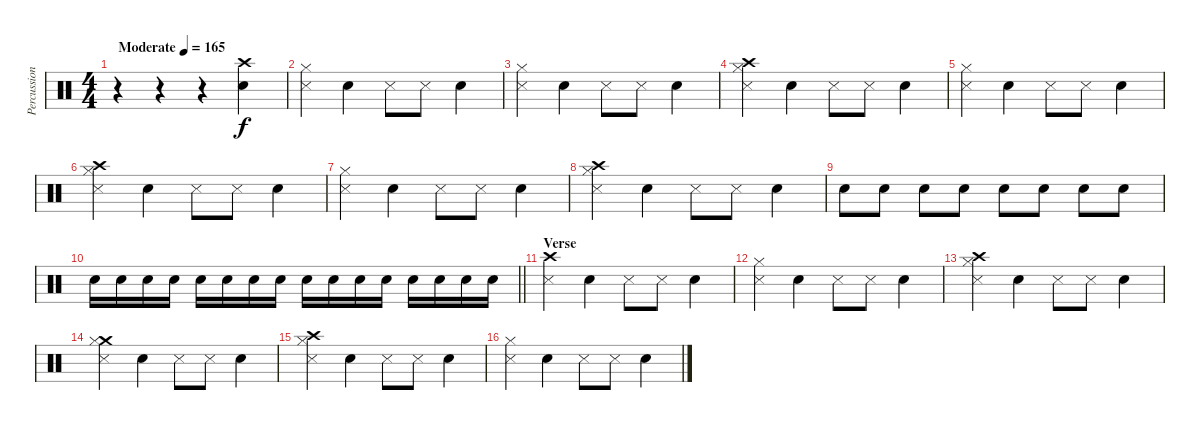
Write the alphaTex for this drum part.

\track ("Percussion" "Percussion") {instrument percussion}
\staff {score}
\articulation defaults
\ts (4 4)
\tempo (165 "Moderate")
\clef neutral
\ks c
r.4{dy f} r.4 r.4 ("Crash high (hit)" "Electric Snare (hit)").4 |
("Metronome (hit)" "Hi-Hat (closed)").4 "Electric Snare (hit)".4 "Metronome (hit)".8 "Metronome (hit)".8 "Electric Snare (hit)".4 |
("Metronome (hit)" "Hi-Hat (closed)").4 "Electric Snare (hit)".4 "Metronome (hit)".8 "Metronome (hit)".8 "Electric Snare (hit)".4 |
("Metronome (hit)" "Crash high (hit)" "Hi-Hat (closed)").4 "Electric Snare (hit)".4 "Metronome (hit)".8 "Metronome (hit)".8 "Electric Snare (hit)".4 |
("Metronome (hit)" "Hi-Hat (closed)").4 "Electric Snare (hit)".4 "Metronome (hit)".8 "Metronome (hit)".8 "Electric Snare (hit)".4 |
("Metronome (hit)" "Crash high (hit)" "Hi-Hat (closed)").4 "Electric Snare (hit)".4 "Metronome (hit)".8 "Metronome (hit)".8 "Electric Snare (hit)".4 |
("Metronome (hit)" "Hi-Hat (closed)").4 "Electric Snare (hit)".4 "Metronome (hit)".8 "Metronome (hit)".8 "Electric Snare (hit)".4 |
("Metronome (hit)" "Crash high (hit)" "Hi-Hat (closed)").4 "Electric Snare (hit)".4 "Metronome (hit)".8 "Metronome (hit)".8 "Electric Snare (hit)".4 |
"Electric Snare (hit)".8 "Electric Snare (hit)".8 "Electric Snare (hit)".8 "Electric Snare (hit)".8 "Electric Snare (hit)".8 "Electric Snare (hit)".8 "Electric Snare (hit)".8 "Electric Snare (hit)".8 |
\barLineRight lightlight "Electric Snare (hit)".16 "Electric Snare (hit)".16 "Electric Snare (hit)".16 "Electric Snare (hit)".16 "Electric Snare (hit)".16 "Electric Snare (hit)".16 "Electric Snare (hit)".16 "Electric Snare (hit)".16 "Electric Snare (hit)".16 "Electric Snare (hit)".16 "Electric Snare (hit)".16 "Electric Snare (hit)".16 "Electric Snare (hit)".16 "Electric Snare (hit)".16 "Electric Snare (hit)".16 "Electric Snare (hit)".16
|
\section ("" "Verse")
("Metronome (hit)" "Crash high (hit)").4 "Electric Snare (hit)".4 "Metronome (hit)".8 "Metronome (hit)".8 "Electric Snare (hit)".4 |
("Metronome (hit)" "Hi-Hat (closed)").4 "Electric Snare (hit)".4 "Metronome (hit)".8 "Metronome (hit)".8 "Electric Snare (hit)".4 |
("Metronome (hit)" "Crash high (hit)" "Hi-Hat (closed)").4 "Electric Snare (hit)".4 "Metronome (hit)".8 "Metronome (hit)".8 "Electric Snare (hit)".4 |
("Metronome (hit)" "Crash medium (hit)" "Hi-Hat (closed)").4 "Electric Snare (hit)".4 "Metronome (hit)".8 "Metronome (hit)".8 "Electric Snare (hit)".4 |
("Metronome (hit)" "Crash high (hit)" "Hi-Hat (closed)").4 "Electric Snare (hit)".4 "Metronome (hit)".8 "Metronome (hit)".8 "Electric Snare (hit)".4 |
("Metronome (hit)" "Hi-Hat (closed)").4 "Electric Snare (hit)".4 "Metronome (hit)".8 "Metronome (hit)".8 "Electric Snare (hit)".4
